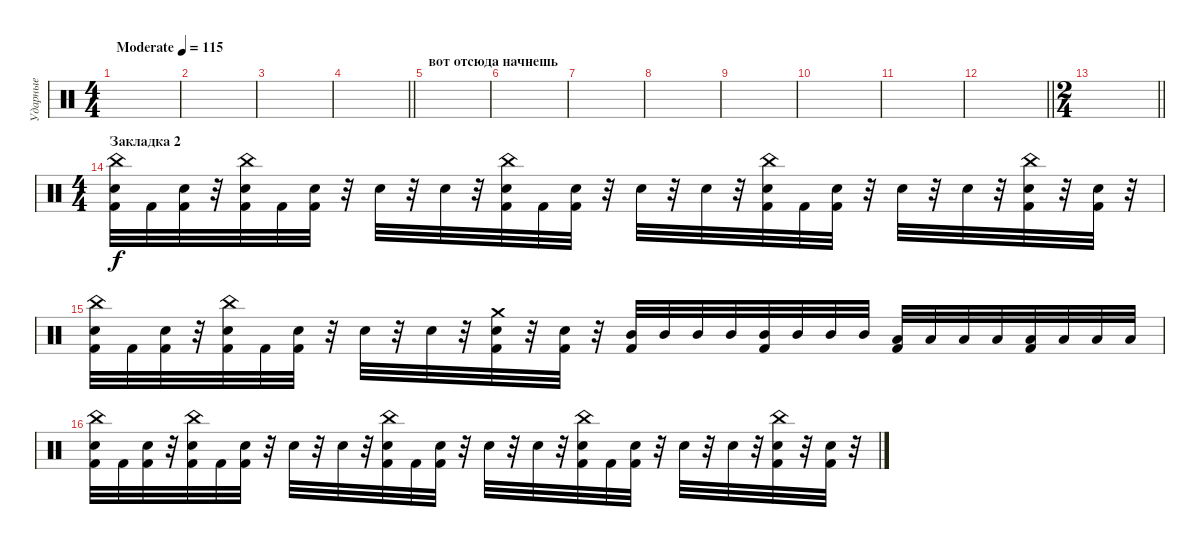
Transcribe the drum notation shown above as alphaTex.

\track ("Ударные" "Ударные") {instrument percussion}
\staff {score}
\articulation defaults
\ts (4 4)
\tempo (115 "Moderate")
\clef neutral
\ks c
|
|
|
\barLineRight lightlight
|
\section ("" "вот отсюда начнешь")
|
|
|
|
|
|
|
\barLineRight lightlight
|
\ts (2 4)
\barLineRight lightlight
|
\ts (4 4)
\section ("" "Закладка 2")
("China (hit)" "Electric Snare (hit)" "Kick (hit) 2").32 "Kick (hit) 2".32 ("Electric Snare (hit)" "Kick (hit) 2").32 r.32 ("China (hit)" "Electric Snare (hit)" "Kick (hit) 2").32 "Kick (hit) 2".32 ("Electric Snare (hit)" "Kick (hit) 2").32 r.32 "Electric Snare (hit)".32 r.32 "Electric Snare (hit)".32 r.32 ("China (hit)" "Electric Snare (hit)" "Kick (hit) 2").32 "Kick (hit) 2".32 ("Electric Snare (hit)" "Kick (hit) 2").32 r.32 "Electric Snare (hit)".32 r.32 "Electric Snare (hit)".32 r.32 ("China (hit)" "Electric Snare (hit)" "Kick (hit) 2").32 "Kick (hit) 2".32 ("Electric Snare (hit)" "Kick (hit) 2").32 r.32 "Electric Snare (hit)".32 r.32 "Electric Snare (hit)".32 r.32 ("China (hit)" "Electric Snare (hit)" "Kick (hit) 2").32 r.32 ("Electric Snare (hit)" "Kick (hit) 2").32 r.32 |
("China (hit)" "Electric Snare (hit)" "Kick (hit) 2").32 "Kick (hit) 2".32 ("Electric Snare (hit)" "Kick (hit) 2").32 r.32 ("China (hit)" "Electric Snare (hit)" "Kick (hit) 2").32 "Kick (hit) 2".32 ("Electric Snare (hit)" "Kick (hit) 2").32 r.32 "Electric Snare (hit)".32 r.32 "Electric Snare (hit)".32 r.32 ("Crash medium (hit)" "Electric Snare (hit)" "Kick (hit) 2").32 r.32 ("Electric Snare (hit)" "Kick (hit) 2").32 r.32 ("Mid Tom (hit)" "Kick (hit) 2").32 "Mid Tom (hit)".32 "Mid Tom (hit)".32 "Mid Tom (hit)".32 ("Mid Tom (hit)" "Kick (hit) 2").32 "Mid Tom (hit)".32 "Mid Tom (hit)".32 "Mid Tom (hit)".32 ("Low Tom (hit)" "Kick (hit) 2").32 "Low Tom (hit)".32 "Low Tom (hit)".32 "Low Tom (hit)".32 ("Low Tom (hit)" "Kick (hit) 2").32 "Low Tom (hit)".32 "Low Tom (hit)".32 "Low Tom (hit)".32 |
("China (hit)" "Electric Snare (hit)" "Kick (hit) 2").32 "Kick (hit) 2".32 ("Electric Snare (hit)" "Kick (hit) 2").32 r.32 ("China (hit)" "Electric Snare (hit)" "Kick (hit) 2").32 "Kick (hit) 2".32 ("Electric Snare (hit)" "Kick (hit) 2").32 r.32 "Electric Snare (hit)".32 r.32 "Electric Snare (hit)".32 r.32 ("China (hit)" "Electric Snare (hit)" "Kick (hit) 2").32 "Kick (hit) 2".32 ("Electric Snare (hit)" "Kick (hit) 2").32 r.32 "Electric Snare (hit)".32 r.32 "Electric Snare (hit)".32 r.32 ("China (hit)" "Electric Snare (hit)" "Kick (hit) 2").32 "Kick (hit) 2".32 ("Electric Snare (hit)" "Kick (hit) 2").32 r.32 "Electric Snare (hit)".32 r.32 "Electric Snare (hit)".32 r.32 ("China (hit)" "Electric Snare (hit)" "Kick (hit) 2").32 r.32 ("Electric Snare (hit)" "Kick (hit) 2").32 r.32
